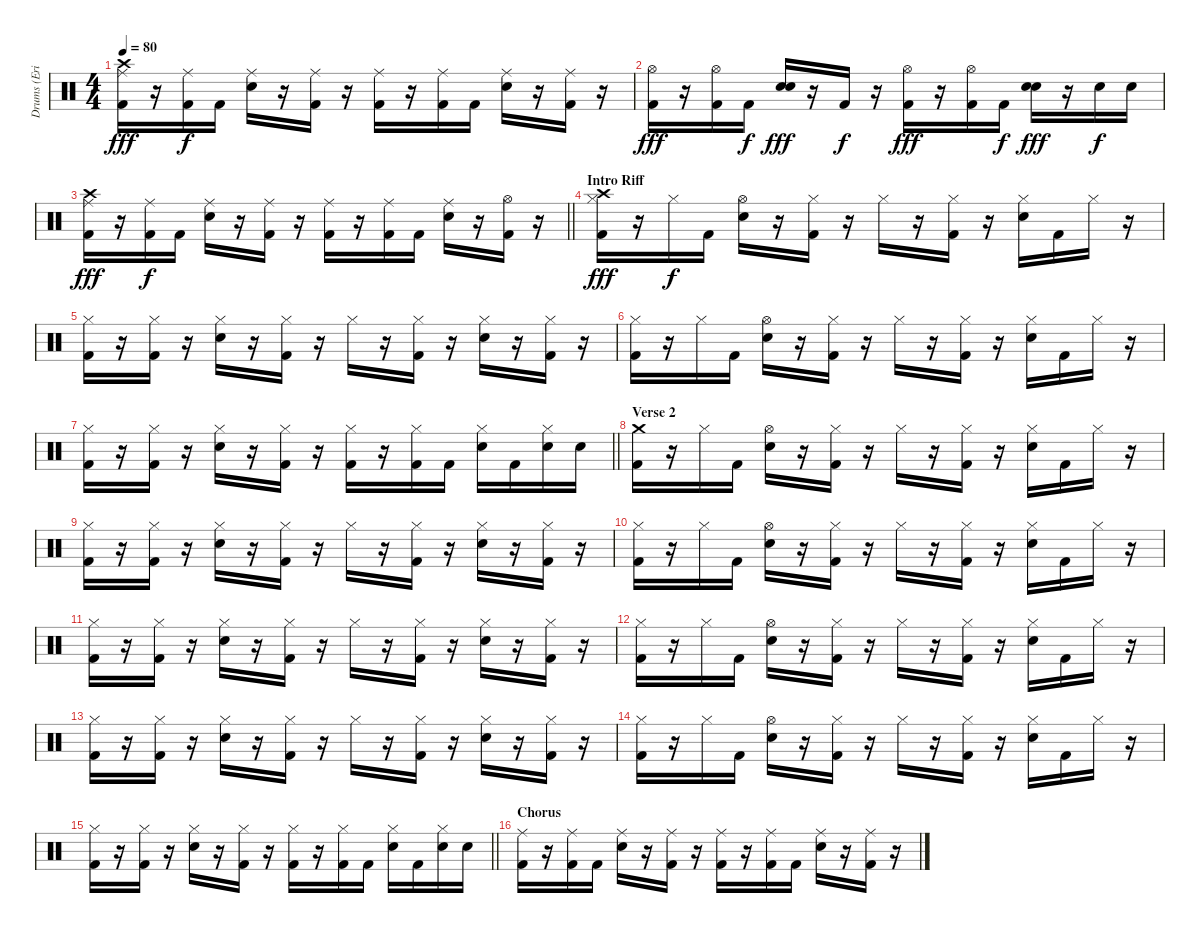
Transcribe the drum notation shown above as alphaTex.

\track ("Drums (Eric Kretz)" "Drums (Eri") {instrument percussion}
\staff {score}
\articulation defaults
\ts (4 4)
\tempo 80
\clef neutral
\ks c
("Crash high (hit)" "Ride (middle)" "Kick (hit) 2").16{dy fff} r.16 ("Ride (middle)" "Kick (hit) 2").16{dy f} "Kick (hit) 2".16 ("Ride (middle)" "Electric Snare (hit)").16 r.16 ("Ride (middle)" "Kick (hit) 2").16 r.16 ("Ride (middle)" "Kick (hit) 2").16 r.16 ("Ride (middle)" "Kick (hit) 2").16 "Kick (hit) 2".16 ("Ride (middle)" "Electric Snare (hit)").16 r.16 ("Ride (middle)" "Kick (hit) 2").16 r.16 |
("Hi-Hat (open)" "Kick (hit) 2").16{dy fff} r.16 ("Hi-Hat (open)" "Kick (hit) 2").16 "Kick (hit) 2".16{dy f} ("Snare (hit) 2" "Electric Snare (hit)").16{dy fff} r.16 "Kick (hit) 2".16{dy f} r.16 ("Hi-Hat (open)" "Kick (hit) 2").16{dy fff} r.16 ("Hi-Hat (open)" "Kick (hit) 2").16 "Kick (hit) 2".16{dy f} ("Snare (hit) 2" "Electric Snare (hit)").16{dy fff} r.16 "Electric Snare (hit)".16{dy f} "Electric Snare (hit)".16 |
\barLineRight lightlight
("Crash high (hit)" "Ride (middle)" "Kick (hit) 2").16{dy fff} r.16 ("Ride (middle)" "Kick (hit) 2").16{dy f} "Kick (hit) 2".16 ("Ride (middle)" "Electric Snare (hit)").16 r.16 ("Ride (middle)" "Kick (hit) 2").16 r.16 ("Ride (middle)" "Kick (hit) 2").16 r.16 ("Ride (middle)" "Kick (hit) 2").16 "Kick (hit) 2".16 ("Ride (middle)" "Electric Snare (hit)").16 r.16 ("Hi-Hat (open)" "Kick (hit) 2").16 r.16 |
\section ("" "Intro Riff")
("Crash high (hit)" "Hi-Hat (closed)" "Kick (hit) 2").16{dy fff} r.16 "Hi-Hat (closed)".16{dy f} "Kick (hit) 2".16 ("Hi-Hat (open)" "Electric Snare (hit)").16 r.16 ("Hi-Hat (closed)" "Kick (hit) 2").16 r.16 "Hi-Hat (closed)".16 r.16 ("Hi-Hat (closed)" "Kick (hit) 2").16 r.16 ("Hi-Hat (closed)" "Electric Snare (hit)").16 "Kick (hit) 2".16 "Hi-Hat (closed)".16 r.16 |
("Hi-Hat (closed)" "Kick (hit) 2").16 r.16 ("Hi-Hat (closed)" "Kick (hit) 2").16 r.16 ("Hi-Hat (closed)" "Electric Snare (hit)").16 r.16 ("Hi-Hat (closed)" "Kick (hit) 2").16 r.16 "Hi-Hat (closed)".16 r.16 ("Hi-Hat (closed)" "Kick (hit) 2").16 r.16 ("Hi-Hat (closed)" "Electric Snare (hit)").16 r.16 ("Hi-Hat (closed)" "Kick (hit) 2").16 r.16 |
("Hi-Hat (closed)" "Kick (hit) 2").16 r.16 "Hi-Hat (closed)".16 "Kick (hit) 2".16 ("Hi-Hat (open)" "Electric Snare (hit)").16 r.16 ("Hi-Hat (closed)" "Kick (hit) 2").16 r.16 "Hi-Hat (closed)".16 r.16 ("Hi-Hat (closed)" "Kick (hit) 2").16 r.16 ("Hi-Hat (closed)" "Electric Snare (hit)").16 "Kick (hit) 2".16 "Hi-Hat (closed)".16 r.16 |
\barLineRight lightlight
("Hi-Hat (closed)" "Kick (hit) 2").16 r.16 ("Hi-Hat (closed)" "Kick (hit) 2").16 r.16 ("Hi-Hat (closed)" "Electric Snare (hit)").16 r.16 ("Hi-Hat (closed)" "Kick (hit) 2").16 r.16 ("Hi-Hat (closed)" "Kick (hit) 2").16 r.16 ("Hi-Hat (closed)" "Kick (hit) 2").16 "Kick (hit) 2".16 ("Hi-Hat (closed)" "Electric Snare (hit)").16 "Kick (hit) 2".16 ("Hi-Hat (closed)" "Electric Snare (hit)").16 "Electric Snare (hit)".16 |
\section ("" "Verse 2")
("Crash medium (hit)" "Kick (hit) 2").16 r.16 "Hi-Hat (closed)".16 "Kick (hit) 2".16 ("Hi-Hat (open)" "Electric Snare (hit)").16 r.16 ("Hi-Hat (closed)" "Kick (hit) 2").16 r.16 "Hi-Hat (closed)".16 r.16 ("Hi-Hat (closed)" "Kick (hit) 2").16 r.16 ("Hi-Hat (closed)" "Electric Snare (hit)").16 "Kick (hit) 2".16 "Hi-Hat (closed)".16 r.16 |
("Hi-Hat (closed)" "Kick (hit) 2").16 r.16 ("Hi-Hat (closed)" "Kick (hit) 2").16 r.16 ("Hi-Hat (closed)" "Electric Snare (hit)").16 r.16 ("Hi-Hat (closed)" "Kick (hit) 2").16 r.16 "Hi-Hat (closed)".16 r.16 ("Hi-Hat (closed)" "Kick (hit) 2").16 r.16 ("Hi-Hat (closed)" "Electric Snare (hit)").16 r.16 ("Hi-Hat (closed)" "Kick (hit) 2").16 r.16 |
("Hi-Hat (closed)" "Kick (hit) 2").16 r.16 "Hi-Hat (closed)".16 "Kick (hit) 2".16 ("Hi-Hat (open)" "Electric Snare (hit)").16 r.16 ("Hi-Hat (closed)" "Kick (hit) 2").16 r.16 "Hi-Hat (closed)".16 r.16 ("Hi-Hat (closed)" "Kick (hit) 2").16 r.16 ("Hi-Hat (closed)" "Electric Snare (hit)").16 "Kick (hit) 2".16 "Hi-Hat (closed)".16 r.16 |
("Hi-Hat (closed)" "Kick (hit) 2").16 r.16 ("Hi-Hat (closed)" "Kick (hit) 2").16 r.16 ("Hi-Hat (closed)" "Electric Snare (hit)").16 r.16 ("Hi-Hat (closed)" "Kick (hit) 2").16 r.16 "Hi-Hat (closed)".16 r.16 ("Hi-Hat (closed)" "Kick (hit) 2").16 r.16 ("Hi-Hat (closed)" "Electric Snare (hit)").16 r.16 ("Hi-Hat (closed)" "Kick (hit) 2").16 r.16 |
("Hi-Hat (closed)" "Kick (hit) 2").16 r.16 "Hi-Hat (closed)".16 "Kick (hit) 2".16 ("Hi-Hat (open)" "Electric Snare (hit)").16 r.16 ("Hi-Hat (closed)" "Kick (hit) 2").16 r.16 "Hi-Hat (closed)".16 r.16 ("Hi-Hat (closed)" "Kick (hit) 2").16 r.16 ("Hi-Hat (closed)" "Electric Snare (hit)").16 "Kick (hit) 2".16 "Hi-Hat (closed)".16 r.16 |
("Hi-Hat (closed)" "Kick (hit) 2").16 r.16 ("Hi-Hat (closed)" "Kick (hit) 2").16 r.16 ("Hi-Hat (closed)" "Electric Snare (hit)").16 r.16 ("Hi-Hat (closed)" "Kick (hit) 2").16 r.16 "Hi-Hat (closed)".16 r.16 ("Hi-Hat (closed)" "Kick (hit) 2").16 r.16 ("Hi-Hat (closed)" "Electric Snare (hit)").16 r.16 ("Hi-Hat (closed)" "Kick (hit) 2").16 r.16 |
("Hi-Hat (closed)" "Kick (hit) 2").16 r.16 "Hi-Hat (closed)".16 "Kick (hit) 2".16 ("Hi-Hat (open)" "Electric Snare (hit)").16 r.16 ("Hi-Hat (closed)" "Kick (hit) 2").16 r.16 "Hi-Hat (closed)".16 r.16 ("Hi-Hat (closed)" "Kick (hit) 2").16 r.16 ("Hi-Hat (closed)" "Electric Snare (hit)").16 "Kick (hit) 2".16 "Hi-Hat (closed)".16 r.16 |
\barLineRight lightlight
("Hi-Hat (closed)" "Kick (hit) 2").16 r.16 ("Hi-Hat (closed)" "Kick (hit) 2").16 r.16 ("Hi-Hat (closed)" "Electric Snare (hit)").16 r.16 ("Hi-Hat (closed)" "Kick (hit) 2").16 r.16 ("Hi-Hat (closed)" "Kick (hit) 2").16 r.16 ("Hi-Hat (closed)" "Kick (hit) 2").16 "Kick (hit) 2".16 ("Hi-Hat (closed)" "Electric Snare (hit)").16 "Kick (hit) 2".16 ("Hi-Hat (closed)" "Electric Snare (hit)").16 "Electric Snare (hit)".16 |
\section ("" "Chorus")
("Ride (middle)" "Kick (hit) 2").16 r.16 ("Ride (middle)" "Kick (hit) 2").16 "Kick (hit) 2".16 ("Ride (middle)" "Electric Snare (hit)").16 r.16 ("Ride (middle)" "Kick (hit) 2").16 r.16 ("Ride (middle)" "Kick (hit) 2").16 r.16 ("Ride (middle)" "Kick (hit) 2").16 "Kick (hit) 2".16 ("Ride (middle)" "Electric Snare (hit)").16 r.16 ("Ride (middle)" "Kick (hit) 2").16 r.16
